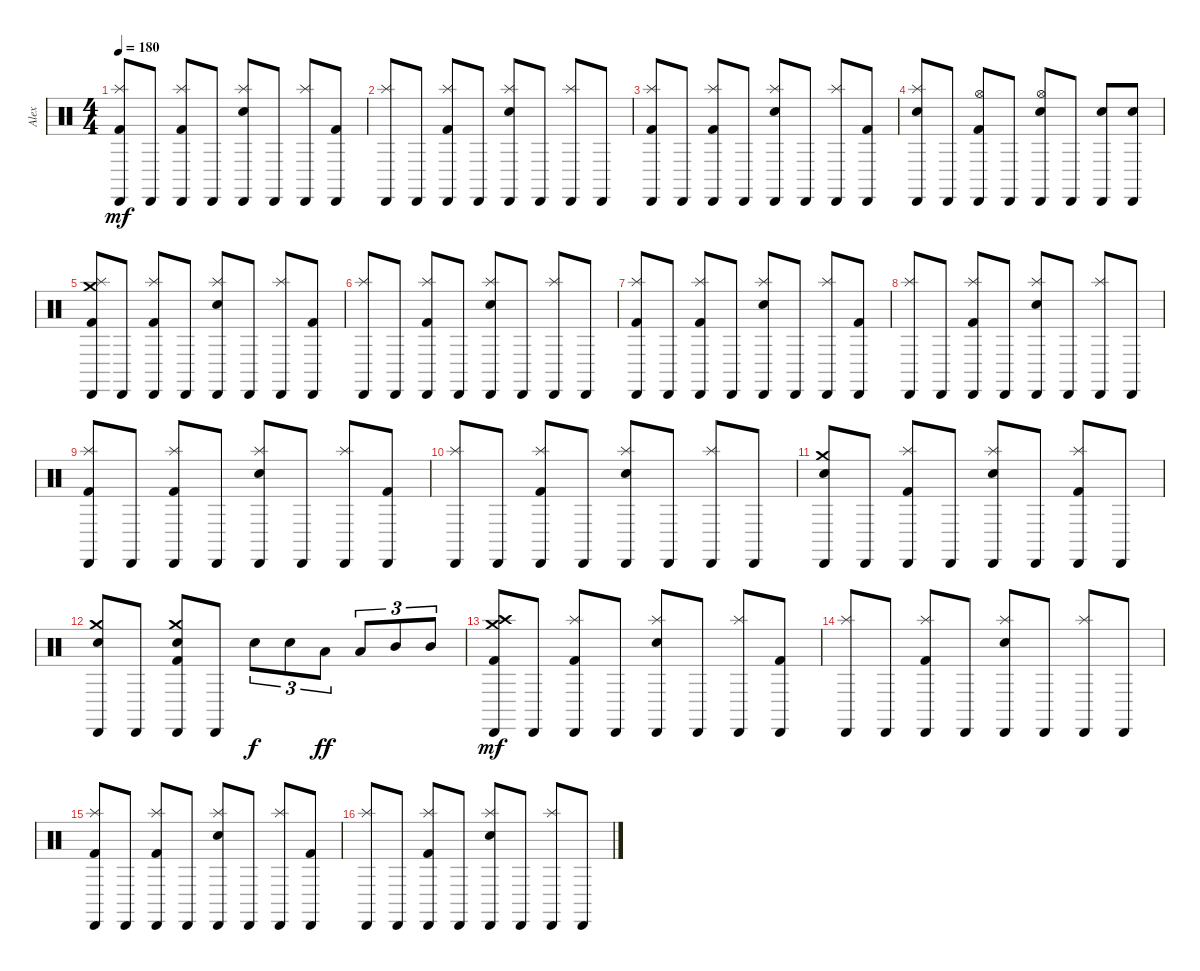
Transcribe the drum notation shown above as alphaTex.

\track ("Alex" "Alex") {instrument percussion}
\staff {score}
\articulation defaults
\ts (4 4)
\tempo 180
\clef neutral
\ks c
("Splash (hit)" "Kick (hit) 2" "Cabasa (hit)").8{dy mf} "Cabasa (hit)".8 ("Splash (hit)" "Kick (hit) 2" "Cabasa (hit)").8 "Cabasa (hit)".8 ("Splash (hit)" "Snare (hit) 2" "Cabasa (hit)").8 "Cabasa (hit)".8 ("Splash (hit)" "Cabasa (hit)").8 ("Kick (hit) 2" "Cabasa (hit)").8 |
("Splash (hit)" "Cabasa (hit)").8 "Cabasa (hit)".8 ("Splash (hit)" "Kick (hit) 2" "Cabasa (hit)").8 "Cabasa (hit)".8 ("Splash (hit)" "Snare (hit) 2" "Cabasa (hit)").8 "Cabasa (hit)".8 ("Splash (hit)" "Cabasa (hit)").8 "Cabasa (hit)".8 |
("Splash (hit)" "Kick (hit) 2" "Cabasa (hit)").8 "Cabasa (hit)".8 ("Splash (hit)" "Kick (hit) 2" "Cabasa (hit)").8 "Cabasa (hit)".8 ("Splash (hit)" "Snare (hit) 2" "Cabasa (hit)").8 "Cabasa (hit)".8 ("Splash (hit)" "Cabasa (hit)").8 ("Kick (hit) 2" "Cabasa (hit)").8 |
("Splash (hit)" "Snare (hit) 2" "Cabasa (hit)").8 "Cabasa (hit)".8 ("Hi-Hat (open)" "Kick (hit) 2" "Cabasa (hit)").8 "Cabasa (hit)".8 ("Hi-Hat (open)" "Snare (hit) 2" "Cabasa (hit)").8 "Cabasa (hit)".8 ("Snare (hit) 2" "Cabasa (hit)").8 ("Snare (hit) 2" "Cabasa (hit)").8 |
("Splash (hit)" "Crash medium (hit)" "Kick (hit) 2" "Cabasa (hit)").8 "Cabasa (hit)".8 ("Splash (hit)" "Kick (hit) 2" "Cabasa (hit)").8 "Cabasa (hit)".8 ("Splash (hit)" "Snare (hit) 2" "Cabasa (hit)").8 "Cabasa (hit)".8 ("Splash (hit)" "Cabasa (hit)").8 ("Kick (hit) 2" "Cabasa (hit)").8 |
("Splash (hit)" "Cabasa (hit)").8 "Cabasa (hit)".8 ("Splash (hit)" "Kick (hit) 2" "Cabasa (hit)").8 "Cabasa (hit)".8 ("Splash (hit)" "Snare (hit) 2" "Cabasa (hit)").8 "Cabasa (hit)".8 ("Splash (hit)" "Cabasa (hit)").8 "Cabasa (hit)".8 |
("Splash (hit)" "Kick (hit) 2" "Cabasa (hit)").8 "Cabasa (hit)".8 ("Splash (hit)" "Kick (hit) 2" "Cabasa (hit)").8 "Cabasa (hit)".8 ("Splash (hit)" "Snare (hit) 2" "Cabasa (hit)").8 "Cabasa (hit)".8 ("Splash (hit)" "Cabasa (hit)").8 ("Kick (hit) 2" "Cabasa (hit)").8 |
("Splash (hit)" "Cabasa (hit)").8 "Cabasa (hit)".8 ("Splash (hit)" "Kick (hit) 2" "Cabasa (hit)").8 "Cabasa (hit)".8 ("Splash (hit)" "Snare (hit) 2" "Cabasa (hit)").8 "Cabasa (hit)".8 ("Splash (hit)" "Cabasa (hit)").8 "Cabasa (hit)".8 |
("Splash (hit)" "Kick (hit) 2" "Cabasa (hit)").8 "Cabasa (hit)".8 ("Splash (hit)" "Kick (hit) 2" "Cabasa (hit)").8 "Cabasa (hit)".8 ("Splash (hit)" "Snare (hit) 2" "Cabasa (hit)").8 "Cabasa (hit)".8 ("Splash (hit)" "Cabasa (hit)").8 ("Kick (hit) 2" "Cabasa (hit)").8 |
("Splash (hit)" "Cabasa (hit)").8 "Cabasa (hit)".8 ("Splash (hit)" "Kick (hit) 2" "Cabasa (hit)").8 "Cabasa (hit)".8 ("Splash (hit)" "Snare (hit) 2" "Cabasa (hit)").8 "Cabasa (hit)".8 ("Splash (hit)" "Cabasa (hit)").8 "Cabasa (hit)".8 |
("Crash medium (hit)" "Snare (hit) 2" "Cabasa (hit)").8 "Cabasa (hit)".8 ("Splash (hit)" "Kick (hit) 2" "Cabasa (hit)").8 "Cabasa (hit)".8 ("Splash (hit)" "Snare (hit) 2" "Cabasa (hit)").8 "Cabasa (hit)".8 ("Splash (hit)" "Kick (hit) 2" "Cabasa (hit)").8 "Cabasa (hit)".8 |
("Crash medium (hit)" "Snare (hit) 2" "Cabasa (hit)").8 "Cabasa (hit)".8 ("Crash medium (hit)" "Snare (hit) 2" "Kick (hit) 2" "Cabasa (hit)").8 "Cabasa (hit)".8 "Snare (hit) 2".8{tu (3 2) dy f} "Snare (hit) 2".8{tu (3 2)} "Low Tom (hit)".8{tu (3 2) dy ff} "Low Tom (hit)".8{tu (3 2)} "Mid Tom (hit)".8{tu (3 2)} "Mid Tom (hit)".8{tu (3 2)} |
("Crash medium (hit)" "Crash high (hit)" "Kick (hit) 2" "Cabasa (hit)").8{dy mf} "Cabasa (hit)".8 ("Splash (hit)" "Kick (hit) 2" "Cabasa (hit)").8 "Cabasa (hit)".8 ("Splash (hit)" "Snare (hit) 2" "Cabasa (hit)").8 "Cabasa (hit)".8 ("Splash (hit)" "Cabasa (hit)").8 ("Kick (hit) 2" "Cabasa (hit)").8 |
("Splash (hit)" "Cabasa (hit)").8 "Cabasa (hit)".8 ("Splash (hit)" "Kick (hit) 2" "Cabasa (hit)").8 "Cabasa (hit)".8 ("Splash (hit)" "Snare (hit) 2" "Cabasa (hit)").8 "Cabasa (hit)".8 ("Splash (hit)" "Cabasa (hit)").8 "Cabasa (hit)".8 |
("Splash (hit)" "Kick (hit) 2" "Cabasa (hit)").8 "Cabasa (hit)".8 ("Splash (hit)" "Kick (hit) 2" "Cabasa (hit)").8 "Cabasa (hit)".8 ("Splash (hit)" "Snare (hit) 2" "Cabasa (hit)").8 "Cabasa (hit)".8 ("Splash (hit)" "Cabasa (hit)").8 ("Kick (hit) 2" "Cabasa (hit)").8 |
("Splash (hit)" "Cabasa (hit)").8 "Cabasa (hit)".8 ("Splash (hit)" "Kick (hit) 2" "Cabasa (hit)").8 "Cabasa (hit)".8 ("Splash (hit)" "Snare (hit) 2" "Cabasa (hit)").8 "Cabasa (hit)".8 ("Splash (hit)" "Cabasa (hit)").8 "Cabasa (hit)".8
